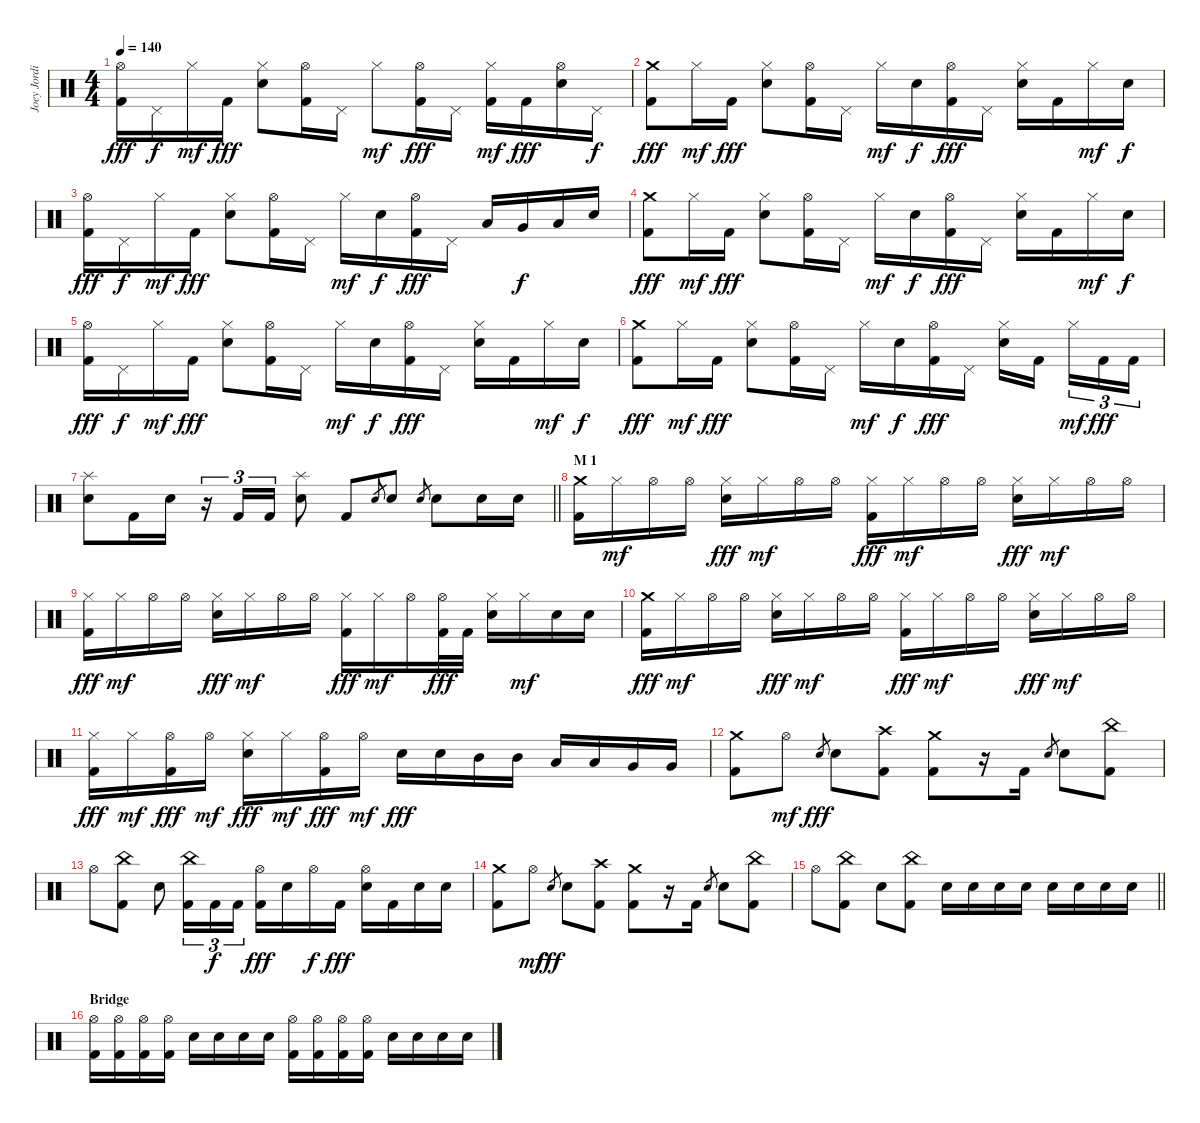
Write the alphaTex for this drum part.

\track ("Joey Jordison" "Joey Jordi") {instrument percussion}
\staff {score}
\articulation defaults
\ts (4 4)
\tempo 140
\clef neutral
\ks c
("Hi-Hat (open)" "Kick (hit) 2").16{dy fff} "Pedal Hi-Hat (hit)".16{dy f} "Hi-Hat (closed)".16{dy mf} "Kick (hit) 2".16{dy fff} ("Hi-Hat (closed)" "Electric Snare (hit)").8 ("Hi-Hat (open)" "Kick (hit) 2").16 "Pedal Hi-Hat (hit)".16 "Hi-Hat (closed)".8{dy mf} ("Hi-Hat (open)" "Kick (hit) 2").16{dy fff} "Pedal Hi-Hat (hit)".16 ("Hi-Hat (closed)" "Kick (hit) 2").16{dy mf} "Kick (hit) 2".16{dy fff} ("Hi-Hat (open)" "Electric Snare (hit)").16 "Pedal Hi-Hat (hit)".16{dy f} |
("Crash medium (hit)" "Kick (hit) 2").8{dy fff} "Hi-Hat (closed)".16{dy mf} "Kick (hit) 2".16{dy fff} ("Hi-Hat (closed)" "Electric Snare (hit)").8 ("Hi-Hat (open)" "Kick (hit) 2").16 "Pedal Hi-Hat (hit)".16 "Hi-Hat (closed)".16{dy mf} "Electric Snare (hit)".16{dy f} ("Hi-Hat (open)" "Kick (hit) 2").16{dy fff} "Pedal Hi-Hat (hit)".16 ("Hi-Hat (closed)" "Electric Snare (hit)").16 "Kick (hit) 2".16 "Hi-Hat (closed)".16{dy mf} "Electric Snare (hit)".16{dy f} |
("Hi-Hat (open)" "Kick (hit) 2").16{dy fff} "Pedal Hi-Hat (hit)".16{dy f} "Hi-Hat (closed)".16{dy mf} "Kick (hit) 2".16{dy fff} ("Hi-Hat (closed)" "Electric Snare (hit)").8 ("Hi-Hat (open)" "Kick (hit) 2").16 "Pedal Hi-Hat (hit)".16 "Hi-Hat (closed)".16{dy mf} "Electric Snare (hit)".16{dy f} ("Hi-Hat (open)" "Kick (hit) 2").16{dy fff} "Pedal Hi-Hat (hit)".16 "Low Tom (hit)".16 "Very Low Tom (hit)".16{dy f} "Low Floor Tom (hit)".16 "Electric Snare (hit)".16 |
("Crash medium (hit)" "Kick (hit) 2").8{dy fff} "Hi-Hat (closed)".16{dy mf} "Kick (hit) 2".16{dy fff} ("Hi-Hat (closed)" "Electric Snare (hit)").8 ("Hi-Hat (open)" "Kick (hit) 2").16 "Pedal Hi-Hat (hit)".16 "Hi-Hat (closed)".16{dy mf} "Electric Snare (hit)".16{dy f} ("Hi-Hat (open)" "Kick (hit) 2").16{dy fff} "Pedal Hi-Hat (hit)".16 ("Hi-Hat (closed)" "Electric Snare (hit)").16 "Kick (hit) 2".16 "Hi-Hat (closed)".16{dy mf} "Electric Snare (hit)".16{dy f} |
("Hi-Hat (open)" "Kick (hit) 2").16{dy fff} "Pedal Hi-Hat (hit)".16{dy f} "Hi-Hat (closed)".16{dy mf} "Kick (hit) 2".16{dy fff} ("Hi-Hat (closed)" "Electric Snare (hit)").8 ("Hi-Hat (open)" "Kick (hit) 2").16 "Pedal Hi-Hat (hit)".16 "Hi-Hat (closed)".16{dy mf} "Electric Snare (hit)".16{dy f} ("Hi-Hat (open)" "Kick (hit) 2").16{dy fff} "Pedal Hi-Hat (hit)".16 ("Hi-Hat (closed)" "Electric Snare (hit)").16 "Kick (hit) 2".16 "Hi-Hat (closed)".16{dy mf} "Electric Snare (hit)".16{dy f} |
("Crash medium (hit)" "Kick (hit) 2").8{dy fff} "Hi-Hat (closed)".16{dy mf} "Kick (hit) 2".16{dy fff} ("Hi-Hat (closed)" "Electric Snare (hit)").8 ("Hi-Hat (open)" "Kick (hit) 2").16 "Pedal Hi-Hat (hit)".16 "Hi-Hat (closed)".16{dy mf} "Electric Snare (hit)".16{dy f} ("Hi-Hat (open)" "Kick (hit) 2").16{dy fff} "Pedal Hi-Hat (hit)".16 ("Hi-Hat (closed)" "Electric Snare (hit)").16 "Kick (hit) 2".16{beam splitsecondary} "Hi-Hat (closed)".16{tu (3 2) dy mf} "Kick (hit) 2".16{tu (3 2) dy fff} "Kick (hit) 2".16{tu (3 2)} |
\barLineRight lightlight
("Splash (hit)" "Electric Snare (hit)").8 "Kick (hit) 2".16 "Electric Snare (hit)".16 r.16{tu (3 2)} "Kick (hit) 2".16{tu (3 2)} "Kick (hit) 2".16{tu (3 2)} ("Splash (hit)" "Electric Snare (hit)").8 "Kick (hit) 2".8 "Electric Snare (hit)".8{gr} "Electric Snare (hit)".8 "Electric Snare (hit)".8{gr} "Electric Snare (hit)".8 "Electric Snare (hit)".16 "Electric Snare (hit)".16 |
\section ("" "M 1")
("Crash medium (hit)" "Kick (hit) 2").16 "Hi-Hat (closed)".16{dy mf} "Hi-Hat (open)".16 "Hi-Hat (open)".16 ("Hi-Hat (closed)" "Electric Snare (hit)").16{dy fff} "Hi-Hat (closed)".16{dy mf} "Hi-Hat (open)".16 "Hi-Hat (open)".16 ("Hi-Hat (closed)" "Kick (hit) 2").16{dy fff} "Hi-Hat (closed)".16{dy mf} "Hi-Hat (open)".16 "Hi-Hat (open)".16 ("Hi-Hat (closed)" "Electric Snare (hit)").16{dy fff} "Hi-Hat (closed)".16{dy mf} "Hi-Hat (open)".16 "Hi-Hat (open)".16 |
("Hi-Hat (closed)" "Kick (hit) 2").16{dy fff} "Hi-Hat (closed)".16{dy mf} "Hi-Hat (open)".16 "Hi-Hat (open)".16 ("Hi-Hat (closed)" "Electric Snare (hit)").16{dy fff} "Hi-Hat (closed)".16{dy mf} "Hi-Hat (open)".16 "Hi-Hat (open)".16 ("Hi-Hat (closed)" "Kick (hit) 2").16{dy fff} "Hi-Hat (closed)".16{dy mf} "Hi-Hat (open)".16 ("Hi-Hat (open)" "Kick (hit) 2").32{dy fff} "Kick (hit) 2".32 ("Hi-Hat (closed)" "Electric Snare (hit)").16 "Hi-Hat (closed)".16{dy mf} "Electric Snare (hit)".16 "Electric Snare (hit)".16 |
("Crash medium (hit)" "Kick (hit) 2").16{dy fff} "Hi-Hat (closed)".16{dy mf} "Hi-Hat (open)".16 "Hi-Hat (open)".16 ("Hi-Hat (closed)" "Electric Snare (hit)").16{dy fff} "Hi-Hat (closed)".16{dy mf} "Hi-Hat (open)".16 "Hi-Hat (open)".16 ("Hi-Hat (closed)" "Kick (hit) 2").16{dy fff} "Hi-Hat (closed)".16{dy mf} "Hi-Hat (open)".16 "Hi-Hat (open)".16 ("Hi-Hat (closed)" "Electric Snare (hit)").16{dy fff} "Hi-Hat (closed)".16{dy mf} "Hi-Hat (open)".16 "Hi-Hat (open)".16 |
("Hi-Hat (closed)" "Kick (hit) 2").16{dy fff} "Hi-Hat (closed)".16{dy mf} ("Hi-Hat (open)" "Kick (hit) 2").16{dy fff} "Hi-Hat (open)".16{dy mf} ("Hi-Hat (closed)" "Electric Snare (hit)").16{dy fff} "Hi-Hat (closed)".16{dy mf} ("Hi-Hat (open)" "Kick (hit) 2").16{dy fff} "Hi-Hat (open)".16{dy mf} "Electric Snare (hit)".16{dy fff} "Electric Snare (hit)".16 "Mid Tom (hit)".16 "Mid Tom (hit)".16 "Low Tom (hit)".16 "Low Tom (hit)".16 "Very Low Tom (hit)".16 "Very Low Tom (hit)".16 |
("Crash medium (hit)" "Kick (hit) 2").8 "Hi-Hat (open)".8{dy mf} "Electric Snare (hit)".8{gr dy fff} "Electric Snare (hit)".8 ("Crash high (hit)" "Kick (hit) 2").8 ("Crash medium (hit)" "Kick (hit) 2").8 r.16 "Kick (hit) 2".16 "Electric Snare (hit)".8{gr} "Electric Snare (hit)".8 ("China (hit)" "Kick (hit) 2").8 |
"Hi-Hat (open)".8 ("China (hit)" "Kick (hit) 2").8 "Electric Snare (hit)".8 ("China (hit)" "Kick (hit) 2").16{tu (3 2)} "Kick (hit) 2".16{tu (3 2) dy f} "Kick (hit) 2".16{tu (3 2)} ("Hi-Hat (open)" "Kick (hit) 2").16{dy fff} "Electric Snare (hit)".16 "Hi-Hat (open)".16{dy f} "Kick (hit) 2".16{dy fff} ("Hi-Hat (open)" "Electric Snare (hit)").16 "Kick (hit) 2".16 "Electric Snare (hit)".16 "Electric Snare (hit)".16 |
("Crash medium (hit)" "Kick (hit) 2").8 "Hi-Hat (open)".8{dy mf} "Electric Snare (hit)".8{gr dy fff} "Electric Snare (hit)".8 ("Crash high (hit)" "Kick (hit) 2").8 ("Crash medium (hit)" "Kick (hit) 2").8 r.16 "Kick (hit) 2".16 "Electric Snare (hit)".8{gr} "Electric Snare (hit)".8 ("China (hit)" "Kick (hit) 2").8 |
\barLineRight lightlight "Hi-Hat (open)".8
("China (hit)" "Kick (hit) 2").8 "Electric Snare (hit)".8 ("China (hit)" "Kick (hit) 2").8 "Electric Snare (hit)".16 "Electric Snare (hit)".16 "Electric Snare (hit)".16 "Electric Snare (hit)".16 "Electric Snare (hit)".16 "Electric Snare (hit)".16 "Electric Snare (hit)".16 "Electric Snare (hit)".16 |
\section ("" "Bridge")
("Hi-Hat (open)" "Kick (hit) 2").16 ("Hi-Hat (open)" "Kick (hit) 2").16 ("Hi-Hat (open)" "Kick (hit) 2").16 ("Hi-Hat (open)" "Kick (hit) 2").16 "Electric Snare (hit)".16 "Electric Snare (hit)".16 "Electric Snare (hit)".16 "Electric Snare (hit)".16 ("Hi-Hat (open)" "Kick (hit) 2").16 ("Hi-Hat (open)" "Kick (hit) 2").16 ("Hi-Hat (open)" "Kick (hit) 2").16 ("Hi-Hat (open)" "Kick (hit) 2").16 "Electric Snare (hit)".16 "Electric Snare (hit)".16 "Electric Snare (hit)".16 "Electric Snare (hit)".16
